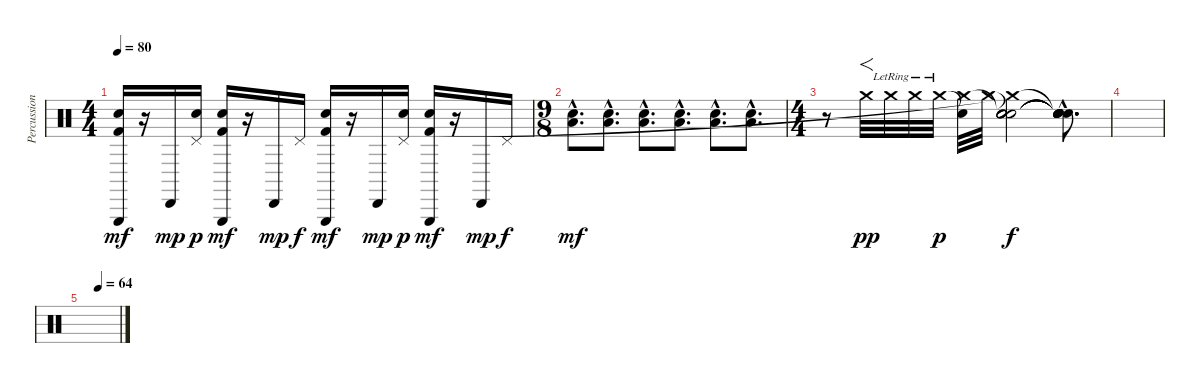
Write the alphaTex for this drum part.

\track ("Percussions" "Percussion") {instrument percussion}
\staff {score}
\articulation defaults
\ts (4 4)
\tempo 80
\clef neutral
\ks c
("Snare (hit) 2" "Triangle (hit)" "Kick (hit) 2").16{dy mf} r.16 "Cabasa (hit)".16{dy mp} ("Snare (hit) 2" "Pedal Hi-Hat (hit)").16{dy p} ("Snare (hit) 2" "Triangle (hit)" "Kick (hit) 2").16{dy mf} r.16 "Cabasa (hit)".16{dy mp} "Pedal Hi-Hat (hit)".16{dy f} ("Snare (hit) 2" "Triangle (hit)" "Kick (hit) 2").16{dy mf} r.16 "Cabasa (hit)".16{dy mp} ("Snare (hit) 2" "Pedal Hi-Hat (hit)").16{dy p} ("Snare (hit) 2" "Triangle (hit)" "Kick (hit) 2").16{dy mf} r.16 "Cabasa (hit)".16{dy mp} "Pedal Hi-Hat (hit)".16{dy f} |
\ts (9 8)
("Snare (hit) 2"{hac} "Low Floor Tom (hit)"{hac}).8{d dy mf} ("Snare (hit) 2"{hac} "Low Floor Tom (hit)"{hac}).8{d} ("Snare (hit) 2"{hac} "Low Floor Tom (hit)"{hac}).8{d} ("Snare (hit) 2"{hac} "Low Floor Tom (hit)"{hac}).8{d} ("Snare (hit) 2"{hac} "Low Floor Tom (hit)"{hac}).8{d} ("Snare (hit) 2"{hac} "Low Floor Tom (hit)"{hac}).8{d} |
\ts (4 4)
r.8 "Crash medium (hit)".32{f dy pp} "Crash medium (hit)"{lr}.32 "Crash medium (hit)"{lr}.32 "Crash medium (hit)"{lr}.32{dy p} ("Snare (hit)"{t} "Crash medium (hit)").32 "Crash medium (hit)".32 ("Snare (hit)"{t} "Snare (hit)"{t} "Crash medium (hit)"{t} "Snare (hit)" "Snare (hit)" "Snare (hit)").2{dy f} ("Snare (hit)"{hac t} "Snare (hit)"{hac t} "Snare (hit)"{hac t} "Snare (hit)"{hac t} "Snare (hit)"{hac t} "Snare (hit)"{hac t}).8{d} |
|
\tempo (64 0.4375)
